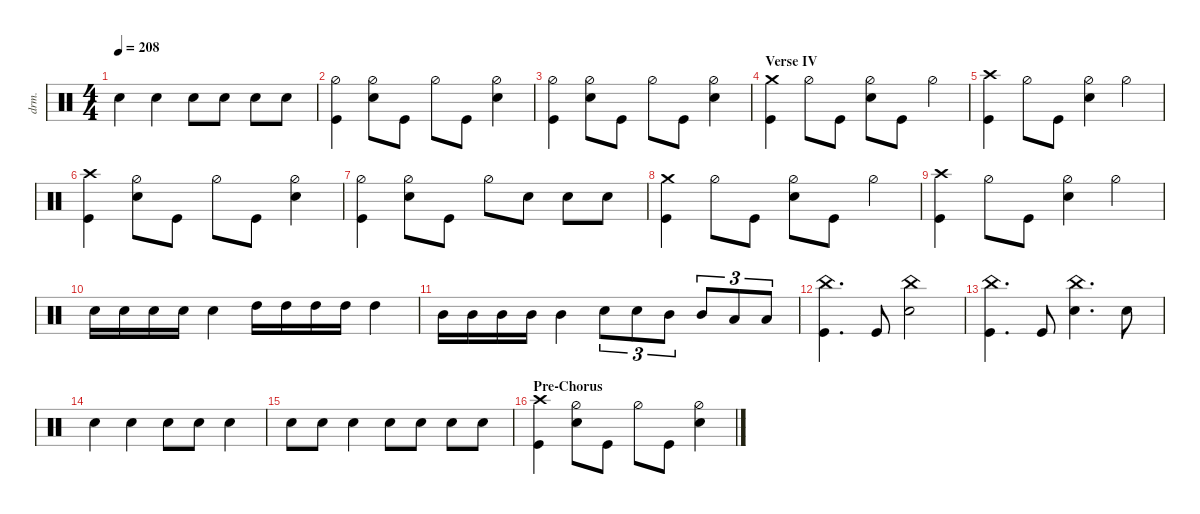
\defaultSystemsLayout 4
\hideDynamics
\bracketExtendMode nobrackets
\otherSystemsTrackNameOrientation horizontal
\track ("Drums" "drm.") {multiBarRest instrument percussion}
\staff
\articulation defaults
\ts (4 4)
\tempo 208
\clef neutral
\ks c "Snare (hit) 2".4{dy f} "Snare (hit) 2".4 "Snare (hit) 2".8 "Snare (hit) 2".8 "Snare (hit) 2".8 "Snare (hit) 2".8
|
("Kick (hit)" "Hi-Hat (half)").4 ("Snare (hit) 2" "Hi-Hat (half)").8 "Kick (hit)".8 "Hi-Hat (half)".8 "Kick (hit)".8 ("Snare (hit) 2" "Hi-Hat (half)").4 |
("Kick (hit)" "Hi-Hat (half)").4 ("Snare (hit) 2" "Hi-Hat (half)").8 "Kick (hit)".8 "Hi-Hat (half)".8 "Kick (hit)".8 ("Snare (hit) 2" "Hi-Hat (half)").4 |
\section ("" "Verse IV")
("Crash medium (hit)" "Kick (hit)").4 "Hi-Hat (half)".8 "Kick (hit)".8 ("Hi-Hat (half)" "Snare (hit) 2").8 "Kick (hit)".8 "Hi-Hat (half)".4 |
("Kick (hit)" "Crash high (hit)").4 "Hi-Hat (half)".8 "Kick (hit)".8 ("Snare (hit) 2" "Hi-Hat (half)").4 "Hi-Hat (half)".4 |
("Crash high (hit)" "Kick (hit)").4 ("Snare (hit) 2" "Hi-Hat (half)").8 "Kick (hit)".8 "Hi-Hat (half)".8 "Kick (hit)".8 ("Snare (hit) 2" "Hi-Hat (half)").4 |
("Kick (hit)" "Hi-Hat (half)").4 ("Snare (hit) 2" "Hi-Hat (half)").8 "Kick (hit)".8 "Hi-Hat (half)".8 "Snare (hit) 2".8 "Snare (hit) 2".8 "Snare (hit) 2".8 |
("Crash medium (hit)" "Kick (hit)").4 "Hi-Hat (half)".8 "Kick (hit)".8 ("Hi-Hat (half)" "Snare (hit) 2").8 "Kick (hit)".8 "Hi-Hat (half)".4 |
("Kick (hit)" "Crash high (hit)").4 "Hi-Hat (half)".8 "Kick (hit)".8 ("Snare (hit) 2" "Hi-Hat (half)").4 "Hi-Hat (half)".4 |
"Snare (hit) 2".16 "Snare (hit) 2".16 "Snare (hit) 2".16 "Snare (hit) 2".16 "Snare (hit) 2".4 "High Tom (hit)".16{dy ff} "High Tom (hit)".16 "High Tom (hit)".16 "High Tom (hit)".16 "High Tom (hit)".4 |
"Mid Tom (hit)".16 "Mid Tom (hit)".16 "Mid Tom (hit)".16 "Mid Tom (hit)".16 "Mid Tom (hit)".4 "Snare (hit) 2".8{tu (3 2) dy f} "Snare (hit) 2".8{tu (3 2)} "Mid Tom (hit)".8{tu (3 2) dy ff} "Mid Tom (hit)".8{tu (3 2)} "Low Tom (hit)".8{tu (3 2)} "Low Tom (hit)".8{tu (3 2)} |
("China (hit)" "Kick (hit)").4{d dy f} "Kick (hit)".8 ("Snare (hit) 2" "China (hit)").2 |
("China (hit)" "Kick (hit)").4{d} "Kick (hit)".8 ("Snare (hit) 2" "China (hit)").4{d} "Snare (hit) 2".8 |
"Snare (hit) 2".4 "Snare (hit) 2".4 "Snare (hit) 2".8 "Snare (hit) 2".8 "Snare (hit) 2".4 |
"Snare (hit) 2".8 "Snare (hit) 2".8 "Snare (hit) 2".4 "Snare (hit) 2".8 "Snare (hit) 2".8 "Snare (hit) 2".8 "Snare (hit) 2".8 |
\section ("" "Pre-Chorus")
("Crash high (hit)" "Kick (hit)").4 ("Snare (hit) 2" "Hi-Hat (half)").8 "Kick (hit)".8 "Hi-Hat (half)".8 "Kick (hit)".8 ("Snare (hit) 2" "Hi-Hat (half)").4
